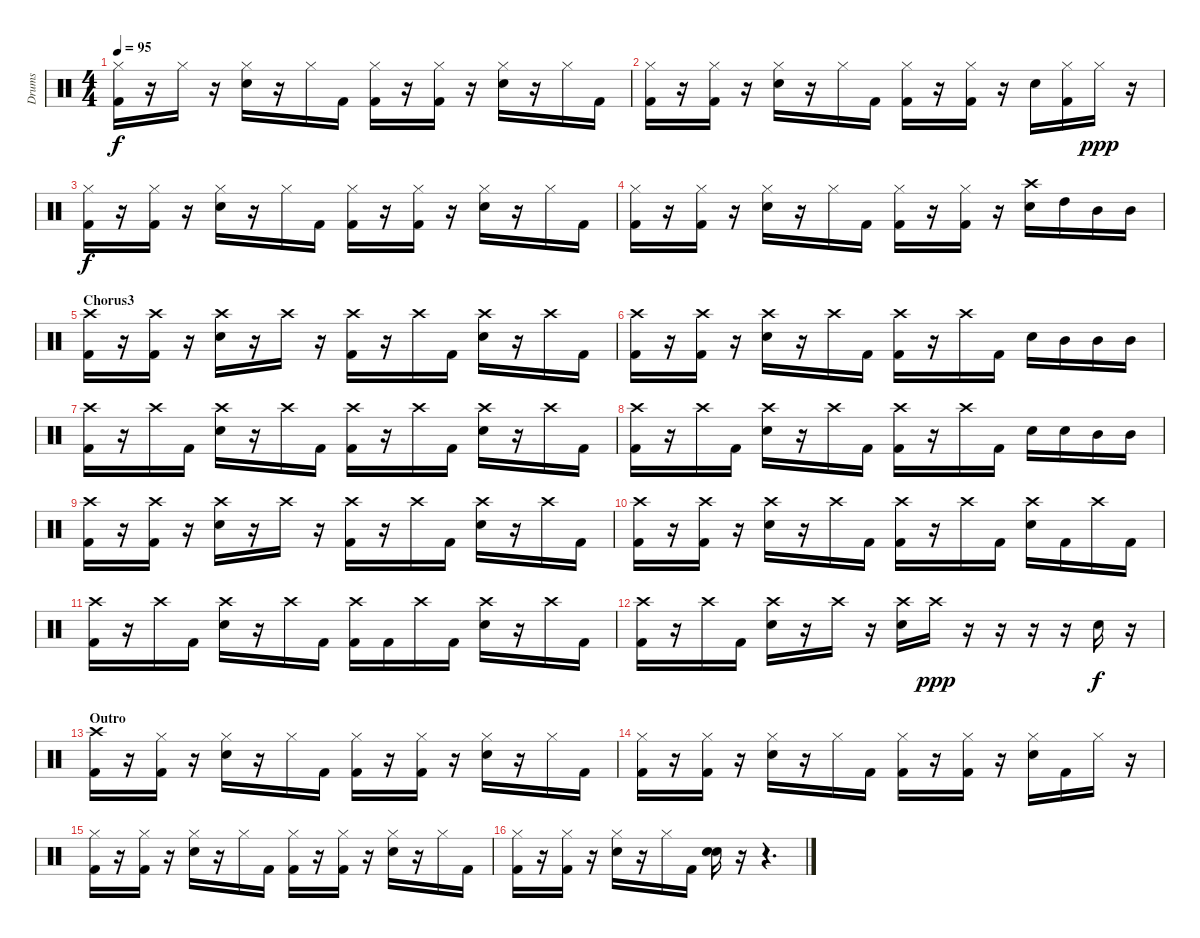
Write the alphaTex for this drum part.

\track ("Drums" "Drums") {instrument percussion}
\staff {score}
\articulation defaults
\ts (4 4)
\tempo 95
\clef neutral
\ks c
("Hi-Hat (closed)" "Kick (hit) 2").16{dy f} r.16 "Hi-Hat (closed)".16 r.16 ("Hi-Hat (closed)" "Snare (hit) 2").16 r.16 "Hi-Hat (closed)".16 "Kick (hit) 2".16 ("Hi-Hat (closed)" "Kick (hit) 2").16 r.16 ("Hi-Hat (closed)" "Kick (hit) 2").16 r.16 ("Hi-Hat (closed)" "Snare (hit) 2").16 r.16 "Hi-Hat (closed)".16 "Kick (hit) 2".16 |
("Hi-Hat (closed)" "Kick (hit) 2").16 r.16 ("Hi-Hat (closed)" "Kick (hit) 2").16 r.16 ("Hi-Hat (closed)" "Snare (hit) 2").16 r.16 "Hi-Hat (closed)".16 "Kick (hit) 2".16 ("Hi-Hat (closed)" "Kick (hit) 2").16 r.16 ("Hi-Hat (closed)" "Kick (hit) 2").16 r.16 "Snare (hit) 2".16 ("Hi-Hat (closed)" "Kick (hit) 2").16 "Hi-Hat (closed)".16{dy ppp} r.16 |
("Hi-Hat (closed)" "Kick (hit) 2").16{dy f} r.16 ("Hi-Hat (closed)" "Kick (hit) 2").16 r.16 ("Hi-Hat (closed)" "Snare (hit) 2").16 r.16 "Hi-Hat (closed)".16 "Kick (hit) 2".16 ("Hi-Hat (closed)" "Kick (hit) 2").16 r.16 ("Hi-Hat (closed)" "Kick (hit) 2").16 r.16 ("Hi-Hat (closed)" "Snare (hit) 2").16 r.16 "Hi-Hat (closed)".16 "Kick (hit) 2".16 |
("Hi-Hat (closed)" "Kick (hit) 2").16 r.16 ("Hi-Hat (closed)" "Kick (hit) 2").16 r.16 ("Hi-Hat (closed)" "Snare (hit) 2").16 r.16 "Hi-Hat (closed)".16 "Kick (hit) 2".16 ("Hi-Hat (closed)" "Kick (hit) 2").16 r.16 ("Hi-Hat (closed)" "Kick (hit) 2").16 r.16 ("Crash high (hit)" "Snare (hit) 2").16 "High Tom (hit)".16 "Mid Tom (hit)".16 "Mid Tom (hit)".16 |
\section ("" "Chorus3")
("Crash high (hit)" "Kick (hit) 2").16 r.16 ("Crash high (hit)" "Kick (hit) 2").16 r.16 ("Crash high (hit)" "Snare (hit) 2").16 r.16 "Crash high (hit)".16 r.16 ("Crash high (hit)" "Kick (hit) 2").16 r.16 "Crash high (hit)".16 "Kick (hit) 2".16 ("Crash high (hit)" "Snare (hit) 2").16 r.16 "Crash high (hit)".16 "Kick (hit) 2".16 |
("Crash high (hit)" "Kick (hit) 2").16 r.16 ("Crash high (hit)" "Kick (hit) 2").16 r.16 ("Crash high (hit)" "Snare (hit) 2").16 r.16 "Crash high (hit)".16 "Kick (hit) 2".16 ("Crash high (hit)" "Kick (hit) 2").16 r.16 "Crash high (hit)".16 "Kick (hit) 2".16 "Snare (hit) 2".16 "Mid Tom (hit)".16 "Mid Tom (hit)".16 "Mid Tom (hit)".16 |
("Crash high (hit)" "Kick (hit) 2").16 r.16 "Crash high (hit)".16 "Kick (hit) 2".16 ("Crash high (hit)" "Snare (hit) 2").16 r.16 "Crash high (hit)".16 "Kick (hit) 2".16 ("Crash high (hit)" "Kick (hit) 2").16 r.16 "Crash high (hit)".16 "Kick (hit) 2".16 ("Crash high (hit)" "Snare (hit) 2").16 r.16 "Crash high (hit)".16 "Kick (hit) 2".16 |
("Crash high (hit)" "Kick (hit) 2").16 r.16 "Crash high (hit)".16 "Kick (hit) 2".16 ("Crash high (hit)" "Snare (hit) 2").16 r.16 "Crash high (hit)".16 "Kick (hit) 2".16 ("Crash high (hit)" "Kick (hit) 2").16 r.16 "Crash high (hit)".16 "Kick (hit) 2".16 "Snare (hit) 2".16 "Snare (hit) 2".16 "Mid Tom (hit)".16 "Mid Tom (hit)".16 |
("Crash high (hit)" "Kick (hit) 2").16 r.16 ("Crash high (hit)" "Kick (hit) 2").16 r.16 ("Crash high (hit)" "Snare (hit) 2").16 r.16 "Crash high (hit)".16 r.16 ("Crash high (hit)" "Kick (hit) 2").16 r.16 "Crash high (hit)".16 "Kick (hit) 2".16 ("Crash high (hit)" "Snare (hit) 2").16 r.16 "Crash high (hit)".16 "Kick (hit) 2".16 |
("Crash high (hit)" "Kick (hit) 2").16 r.16 ("Crash high (hit)" "Kick (hit) 2").16 r.16 ("Crash high (hit)" "Snare (hit) 2").16 r.16 "Crash high (hit)".16 "Kick (hit) 2".16 ("Crash high (hit)" "Kick (hit) 2").16 r.16 "Crash high (hit)".16 "Kick (hit) 2".16 ("Crash high (hit)" "Snare (hit) 2").16 "Kick (hit) 2".16 "Crash high (hit)".16 "Kick (hit) 2".16 |
("Crash high (hit)" "Kick (hit) 2").16 r.16 "Crash high (hit)".16 "Kick (hit) 2".16 ("Crash high (hit)" "Snare (hit) 2").16 r.16 "Crash high (hit)".16 "Kick (hit) 2".16 ("Crash high (hit)" "Kick (hit) 2").16 "Kick (hit) 2".16 "Crash high (hit)".16 "Kick (hit) 2".16 ("Crash high (hit)" "Snare (hit) 2").16 r.16 "Crash high (hit)".16 "Kick (hit) 2".16 |
("Crash high (hit)" "Kick (hit) 2").16 r.16 "Crash high (hit)".16 "Kick (hit) 2".16 ("Crash high (hit)" "Snare (hit) 2").16 r.16 "Crash high (hit)".16 r.16 ("Crash high (hit)" "Snare (hit) 2").16 "Crash high (hit)".16{dy ppp} r.16 r.16 r.16 r.16 "Snare (hit) 2".16{dy f} r.16 |
\section ("" "Outro")
("Crash high (hit)" "Kick (hit) 2").16 r.16 ("Hi-Hat (closed)" "Kick (hit) 2").16 r.16 ("Hi-Hat (closed)" "Snare (hit) 2").16 r.16 "Hi-Hat (closed)".16 "Kick (hit) 2".16 ("Hi-Hat (closed)" "Kick (hit) 2").16 r.16 ("Hi-Hat (closed)" "Kick (hit) 2").16 r.16 ("Hi-Hat (closed)" "Snare (hit) 2").16 r.16 "Hi-Hat (closed)".16 "Kick (hit) 2".16 |
("Hi-Hat (closed)" "Kick (hit) 2").16 r.16 ("Hi-Hat (closed)" "Kick (hit) 2").16 r.16 ("Hi-Hat (closed)" "Snare (hit) 2").16 r.16 "Hi-Hat (closed)".16 "Kick (hit) 2".16 ("Hi-Hat (closed)" "Kick (hit) 2").16 r.16 ("Hi-Hat (closed)" "Kick (hit) 2").16 r.16 ("Hi-Hat (closed)" "Snare (hit) 2").16 "Kick (hit) 2".16 "Hi-Hat (closed)".16 r.16 |
("Hi-Hat (closed)" "Kick (hit) 2").16 r.16 ("Hi-Hat (closed)" "Kick (hit) 2").16 r.16 ("Hi-Hat (closed)" "Snare (hit) 2").16 r.16 "Hi-Hat (closed)".16 "Kick (hit) 2".16 ("Hi-Hat (closed)" "Kick (hit) 2").16 r.16 ("Hi-Hat (closed)" "Kick (hit) 2").16 r.16 ("Hi-Hat (closed)" "Snare (hit) 2").16 r.16 "Hi-Hat (closed)".16 "Kick (hit) 2".16 |
("Hi-Hat (closed)" "Kick (hit) 2").16 r.16 ("Hi-Hat (closed)" "Kick (hit) 2").16 r.16 ("Hi-Hat (closed)" "Snare (hit) 2").16 r.16 "Hi-Hat (closed)".16 "Kick (hit) 2".16 ("Snare (hit) 2" "Snare (hit) 2").16 r.16 r.4{d}
